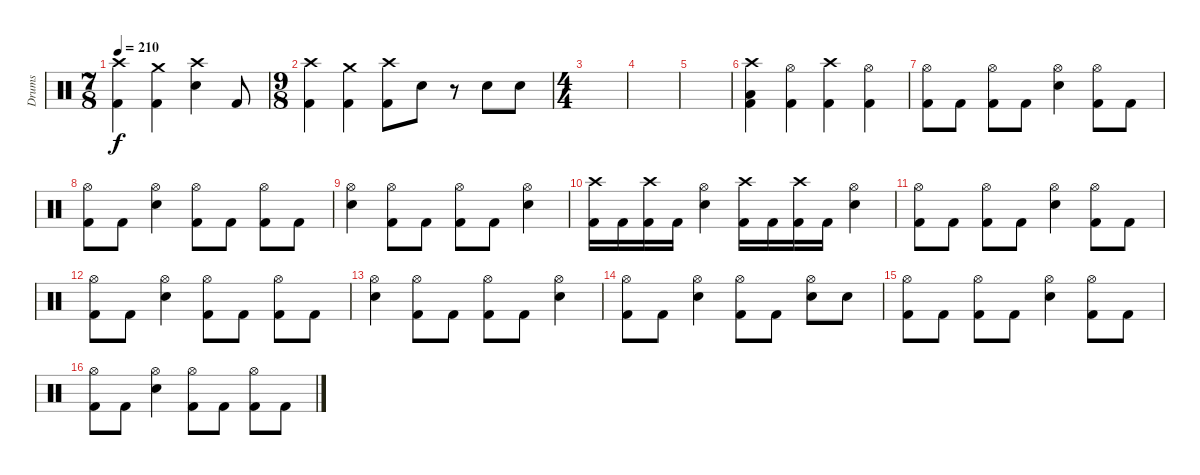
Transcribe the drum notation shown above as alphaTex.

\track ("Drums" "Drums") {instrument percussion}
\staff {score}
\articulation defaults
\ts (7 8)
\tempo 210
\clef neutral
\ks c
("Crash high (hit)" "Kick (hit) 2").4{dy f} ("Crash medium (hit)" "Kick (hit) 2").4 ("Crash high (hit)" "Electric Snare (hit)").4 "Kick (hit) 2".8 |
\ts (9 8)
("Crash high (hit)" "Kick (hit) 2").4 ("Crash medium (hit)" "Kick (hit) 2").4 ("Crash high (hit)" "Kick (hit) 2").8 "Electric Snare (hit)".8 r.8 "Electric Snare (hit)".8 "Electric Snare (hit)".8 |
\ts (4 4)
|
|
|
("Crash high (hit)" "Low Tom (hit)" "Kick (hit) 2").4 ("Hi-Hat (open)" "Kick (hit) 2").4 ("Crash high (hit)" "Kick (hit) 2").4 ("Hi-Hat (open)" "Kick (hit) 2").4 |
("Hi-Hat (open)" "Kick (hit) 2").8 "Kick (hit) 2".8 ("Hi-Hat (open)" "Kick (hit) 2").8 "Kick (hit) 2".8 ("Hi-Hat (open)" "Electric Snare (hit)").4 ("Hi-Hat (open)" "Kick (hit) 2").8 "Kick (hit) 2".8 |
("Hi-Hat (open)" "Kick (hit) 2").8 "Kick (hit) 2".8 ("Hi-Hat (open)" "Electric Snare (hit)").4 ("Hi-Hat (open)" "Kick (hit) 2").8 "Kick (hit) 2".8 ("Hi-Hat (open)" "Kick (hit) 2").8 "Kick (hit) 2".8 |
("Hi-Hat (open)" "Electric Snare (hit)").4 ("Hi-Hat (open)" "Kick (hit) 2").8 "Kick (hit) 2".8 ("Hi-Hat (open)" "Kick (hit) 2").8 "Kick (hit) 2".8 ("Hi-Hat (open)" "Electric Snare (hit)").4 |
("Crash high (hit)" "Kick (hit) 2").16 "Kick (hit) 2".16 ("Crash high (hit)" "Kick (hit) 2").16 "Kick (hit) 2".16 ("Hi-Hat (open)" "Electric Snare (hit)").4 ("Crash high (hit)" "Kick (hit) 2").16 "Kick (hit) 2".16 ("Crash high (hit)" "Kick (hit) 2").16 "Kick (hit) 2".16 ("Hi-Hat (open)" "Electric Snare (hit)").4 |
("Hi-Hat (open)" "Kick (hit) 2").8 "Kick (hit) 2".8 ("Hi-Hat (open)" "Kick (hit) 2").8 "Kick (hit) 2".8 ("Hi-Hat (open)" "Electric Snare (hit)").4 ("Hi-Hat (open)" "Kick (hit) 2").8 "Kick (hit) 2".8 |
("Hi-Hat (open)" "Kick (hit) 2").8 "Kick (hit) 2".8 ("Hi-Hat (open)" "Electric Snare (hit)").4 ("Hi-Hat (open)" "Kick (hit) 2").8 "Kick (hit) 2".8 ("Hi-Hat (open)" "Kick (hit) 2").8 "Kick (hit) 2".8 |
("Hi-Hat (open)" "Electric Snare (hit)").4 ("Hi-Hat (open)" "Kick (hit) 2").8 "Kick (hit) 2".8 ("Hi-Hat (open)" "Kick (hit) 2").8 "Kick (hit) 2".8 ("Hi-Hat (open)" "Electric Snare (hit)").4 |
("Hi-Hat (open)" "Kick (hit) 2").8 "Kick (hit) 2".8 ("Hi-Hat (open)" "Electric Snare (hit)").4 ("Hi-Hat (open)" "Kick (hit) 2").8 "Kick (hit) 2".8 ("Hi-Hat (open)" "Electric Snare (hit)").8 "Electric Snare (hit)".8 |
("Hi-Hat (open)" "Kick (hit) 2").8 "Kick (hit) 2".8 ("Hi-Hat (open)" "Kick (hit) 2").8 "Kick (hit) 2".8 ("Hi-Hat (open)" "Electric Snare (hit)").4 ("Hi-Hat (open)" "Kick (hit) 2").8 "Kick (hit) 2".8 |
("Hi-Hat (open)" "Kick (hit) 2").8 "Kick (hit) 2".8 ("Hi-Hat (open)" "Electric Snare (hit)").4 ("Hi-Hat (open)" "Kick (hit) 2").8 "Kick (hit) 2".8 ("Hi-Hat (open)" "Kick (hit) 2").8 "Kick (hit) 2".8
